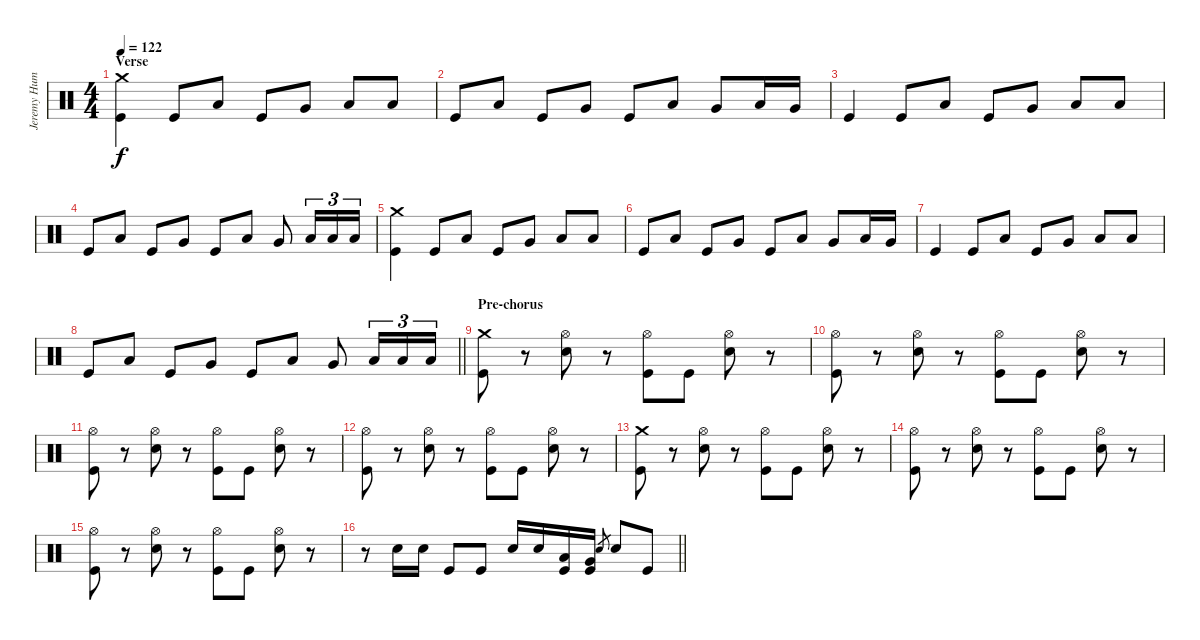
\track ("Jeremy Hummel Drums]" "Jeremy Hum") {instrument percussion}
\staff {score}
\articulation defaults
\ts (4 4)
\section ("" "Verse")
\tempo 122
\clef neutral
\ks c
("Crash medium (hit)" "Kick (hit)").4{dy f} "Kick (hit)".8 "Low Tom (hit)".8 "Kick (hit)".8 "Very Low Tom (hit)".8 "Low Floor Tom (hit)".8 "Low Tom (hit)".8 |
"Kick (hit)".8 "Low Tom (hit)".8 "Kick (hit)".8 "Very Low Tom (hit)".8 "Kick (hit)".8 "Low Floor Tom (hit)".8 "Very Low Tom (hit)".8 "Low Tom (hit)".16 "Very Low Tom (hit)".16 |
"Kick (hit)".4 "Kick (hit)".8 "Low Tom (hit)".8 "Kick (hit)".8 "Very Low Tom (hit)".8 "Low Floor Tom (hit)".8 "Low Tom (hit)".8 |
"Kick (hit)".8 "Low Tom (hit)".8 "Kick (hit)".8 "Very Low Tom (hit)".8 "Kick (hit)".8 "Low Floor Tom (hit)".8 "Very Low Tom (hit)".8 "Low Tom (hit)".16{tu (3 2)} "Low Tom (hit)".16{tu (3 2)} "Low Tom (hit)".16{tu (3 2)} |
("Crash medium (hit)" "Kick (hit)").4 "Kick (hit)".8 "Low Tom (hit)".8 "Kick (hit)".8 "Very Low Tom (hit)".8 "Low Floor Tom (hit)".8 "Low Tom (hit)".8 |
"Kick (hit)".8 "Low Tom (hit)".8 "Kick (hit)".8 "Very Low Tom (hit)".8 "Kick (hit)".8 "Low Floor Tom (hit)".8 "Very Low Tom (hit)".8 "Low Tom (hit)".16 "Very Low Tom (hit)".16 |
"Kick (hit)".4 "Kick (hit)".8 "Low Tom (hit)".8 "Kick (hit)".8 "Very Low Tom (hit)".8 "Low Floor Tom (hit)".8 "Low Tom (hit)".8 |
\barLineRight lightlight "Kick (hit)".8 "Low Tom (hit)".8 "Kick (hit)".8 "Very Low Tom (hit)".8 "Kick (hit)".8 "Low Floor Tom (hit)".8 "Very Low Tom (hit)".8 "Low Tom (hit)".16{tu (3 2)} "Low Tom (hit)".16{tu (3 2)} "Low Tom (hit)".16{tu (3 2)}
|
\section ("" "Pre-chorus")
("Crash medium (hit)" "Kick (hit)").8 r.8 ("Hi-Hat (open)" "Electric Snare (hit)").8 r.8 ("Hi-Hat (open)" "Kick (hit)").8 "Kick (hit)".8 ("Hi-Hat (open)" "Electric Snare (hit)").8 r.8 |
("Hi-Hat (open)" "Kick (hit)").8 r.8 ("Hi-Hat (open)" "Electric Snare (hit)").8 r.8 ("Hi-Hat (open)" "Kick (hit)").8 "Kick (hit)".8 ("Hi-Hat (open)" "Electric Snare (hit)").8 r.8 |
("Hi-Hat (open)" "Kick (hit)").8 r.8 ("Hi-Hat (open)" "Electric Snare (hit)").8 r.8 ("Hi-Hat (open)" "Kick (hit)").8 "Kick (hit)".8 ("Hi-Hat (open)" "Electric Snare (hit)").8 r.8 |
("Hi-Hat (open)" "Kick (hit)").8 r.8 ("Hi-Hat (open)" "Electric Snare (hit)").8 r.8 ("Hi-Hat (open)" "Kick (hit)").8 "Kick (hit)".8 ("Hi-Hat (open)" "Electric Snare (hit)").8 r.8 |
("Crash medium (hit)" "Kick (hit)").8 r.8 ("Hi-Hat (open)" "Electric Snare (hit)").8 r.8 ("Hi-Hat (open)" "Kick (hit)").8 "Kick (hit)".8 ("Hi-Hat (open)" "Electric Snare (hit)").8 r.8 |
("Hi-Hat (open)" "Kick (hit)").8 r.8 ("Hi-Hat (open)" "Electric Snare (hit)").8 r.8 ("Hi-Hat (open)" "Kick (hit)").8 "Kick (hit)".8 ("Hi-Hat (open)" "Electric Snare (hit)").8 r.8 |
("Hi-Hat (open)" "Kick (hit)").8 r.8 ("Hi-Hat (open)" "Electric Snare (hit)").8 r.8 ("Hi-Hat (open)" "Kick (hit)").8 "Kick (hit)".8 ("Hi-Hat (open)" "Electric Snare (hit)").8 r.8 |
\barLineRight lightlight
r.8 "Electric Snare (hit)".16 "Electric Snare (hit)".16 "Kick (hit)".8 "Kick (hit)".8 "Electric Snare (hit)".16 "Electric Snare (hit)".16 ("Low Tom (hit)" "Kick (hit)").16 ("Very Low Tom (hit)" "Kick (hit)").16 "Electric Snare (hit)".8{gr} "Electric Snare (hit)".8 "Kick (hit)".8
